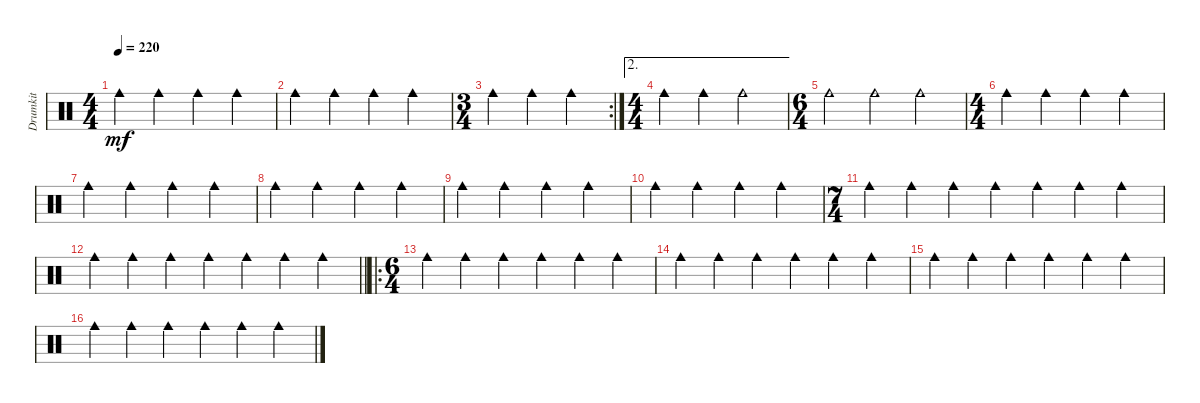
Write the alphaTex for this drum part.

\track ("Drumkit" "Drumkit") {instrument percussion}
\staff {score}
\articulation defaults
\ts (4 4)
\tempo 220
\clef neutral
\ks c "Cowbell medium (hit)".4{dy mf} "Cowbell medium (hit)".4 "Cowbell medium (hit)".4 "Cowbell medium (hit)".4
|
"Cowbell medium (hit)".4 "Cowbell medium (hit)".4 "Cowbell medium (hit)".4 "Cowbell medium (hit)".4 |
\rc 2
\ts (3 4)
"Cowbell medium (hit)".4 "Cowbell medium (hit)".4 "Cowbell medium (hit)".4 |
\ae 2
\ts (4 4)
"Cowbell medium (hit)".4 "Cowbell medium (hit)".4 "Cowbell medium (hit)".2 |
\ts (6 4)
"Cowbell medium (hit)".2 "Cowbell medium (hit)".2 "Cowbell medium (hit)".2 |
\ts (4 4)
"Cowbell medium (hit)".4 "Cowbell medium (hit)".4 "Cowbell medium (hit)".4 "Cowbell medium (hit)".4 |
"Cowbell medium (hit)".4 "Cowbell medium (hit)".4 "Cowbell medium (hit)".4 "Cowbell medium (hit)".4 |
"Cowbell medium (hit)".4 "Cowbell medium (hit)".4 "Cowbell medium (hit)".4 "Cowbell medium (hit)".4 |
"Cowbell medium (hit)".4 "Cowbell medium (hit)".4 "Cowbell medium (hit)".4 "Cowbell medium (hit)".4 |
"Cowbell medium (hit)".4 "Cowbell medium (hit)".4 "Cowbell medium (hit)".4 "Cowbell medium (hit)".4 |
\ts (7 4)
"Cowbell medium (hit)".4 "Cowbell medium (hit)".4 "Cowbell medium (hit)".4 "Cowbell medium (hit)".4 "Cowbell medium (hit)".4 "Cowbell medium (hit)".4 "Cowbell medium (hit)".4 |
\barLineRight lightlight "Cowbell medium (hit)".4 "Cowbell medium (hit)".4 "Cowbell medium (hit)".4 "Cowbell medium (hit)".4 "Cowbell medium (hit)".4 "Cowbell medium (hit)".4 "Cowbell medium (hit)".4
|
\ro
\ts (6 4)
\section ("" "")
"Cowbell medium (hit)".4 "Cowbell medium (hit)".4 "Cowbell medium (hit)".4 "Cowbell medium (hit)".4 "Cowbell medium (hit)".4 "Cowbell medium (hit)".4 |
"Cowbell medium (hit)".4 "Cowbell medium (hit)".4 "Cowbell medium (hit)".4 "Cowbell medium (hit)".4 "Cowbell medium (hit)".4 "Cowbell medium (hit)".4 |
"Cowbell medium (hit)".4 "Cowbell medium (hit)".4 "Cowbell medium (hit)".4 "Cowbell medium (hit)".4 "Cowbell medium (hit)".4 "Cowbell medium (hit)".4 |
"Cowbell medium (hit)".4 "Cowbell medium (hit)".4 "Cowbell medium (hit)".4 "Cowbell medium (hit)".4 "Cowbell medium (hit)".4 "Cowbell medium (hit)".4
